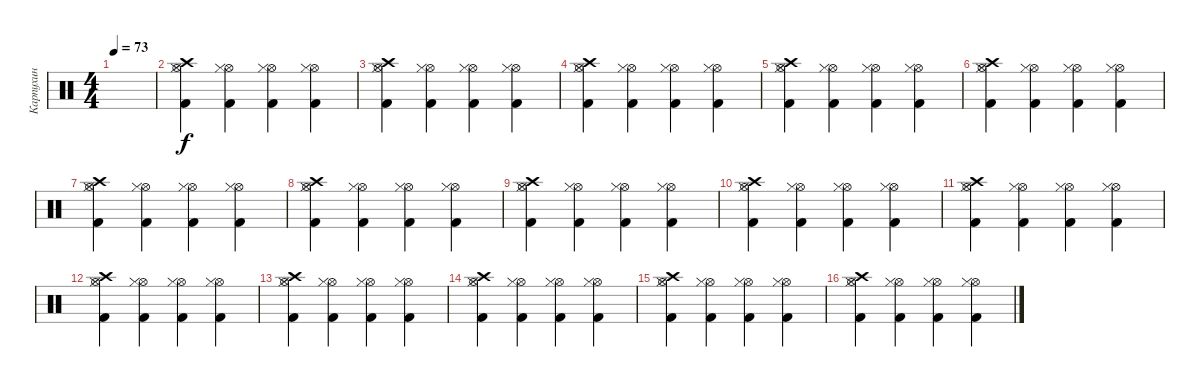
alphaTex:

\track ("Карпухин" "Карпухин") {instrument percussion}
\staff {score}
\articulation defaults
\ts (4 4)
\tempo 73
\clef neutral
\ks c
|
("Kick (hit) 2" "Hi-Hat (open)" "Hi-Hat (closed)" "Crash high (hit)").4 ("Kick (hit) 2" "Hi-Hat (open)" "Hi-Hat (closed)").4 ("Kick (hit) 2" "Hi-Hat (open)" "Hi-Hat (closed)").4 ("Kick (hit) 2" "Hi-Hat (open)" "Hi-Hat (closed)").4 |
("Kick (hit) 2" "Hi-Hat (open)" "Hi-Hat (closed)" "Crash high (hit)").4 ("Kick (hit) 2" "Hi-Hat (open)" "Hi-Hat (closed)").4 ("Kick (hit) 2" "Hi-Hat (open)" "Hi-Hat (closed)").4 ("Kick (hit) 2" "Hi-Hat (open)" "Hi-Hat (closed)").4 |
("Kick (hit) 2" "Hi-Hat (open)" "Hi-Hat (closed)" "Crash high (hit)").4 ("Kick (hit) 2" "Hi-Hat (open)" "Hi-Hat (closed)").4 ("Kick (hit) 2" "Hi-Hat (open)" "Hi-Hat (closed)").4 ("Kick (hit) 2" "Hi-Hat (open)" "Hi-Hat (closed)").4 |
("Kick (hit) 2" "Hi-Hat (open)" "Hi-Hat (closed)" "Crash high (hit)").4 ("Kick (hit) 2" "Hi-Hat (open)" "Hi-Hat (closed)").4 ("Kick (hit) 2" "Hi-Hat (open)" "Hi-Hat (closed)").4 ("Kick (hit) 2" "Hi-Hat (open)" "Hi-Hat (closed)").4 |
("Kick (hit) 2" "Hi-Hat (open)" "Hi-Hat (closed)" "Crash high (hit)").4 ("Kick (hit) 2" "Hi-Hat (open)" "Hi-Hat (closed)").4 ("Kick (hit) 2" "Hi-Hat (open)" "Hi-Hat (closed)").4 ("Kick (hit) 2" "Hi-Hat (open)" "Hi-Hat (closed)").4 |
("Kick (hit) 2" "Hi-Hat (open)" "Hi-Hat (closed)" "Crash high (hit)").4 ("Kick (hit) 2" "Hi-Hat (open)" "Hi-Hat (closed)").4 ("Kick (hit) 2" "Hi-Hat (open)" "Hi-Hat (closed)").4 ("Kick (hit) 2" "Hi-Hat (open)" "Hi-Hat (closed)").4 |
("Kick (hit) 2" "Hi-Hat (open)" "Hi-Hat (closed)" "Crash high (hit)").4 ("Kick (hit) 2" "Hi-Hat (open)" "Hi-Hat (closed)").4 ("Kick (hit) 2" "Hi-Hat (open)" "Hi-Hat (closed)").4 ("Kick (hit) 2" "Hi-Hat (open)" "Hi-Hat (closed)").4 |
("Kick (hit) 2" "Hi-Hat (open)" "Hi-Hat (closed)" "Crash high (hit)").4 ("Kick (hit) 2" "Hi-Hat (open)" "Hi-Hat (closed)").4 ("Kick (hit) 2" "Hi-Hat (open)" "Hi-Hat (closed)").4 ("Kick (hit) 2" "Hi-Hat (open)" "Hi-Hat (closed)").4 |
("Kick (hit) 2" "Hi-Hat (open)" "Hi-Hat (closed)" "Crash high (hit)").4 ("Kick (hit) 2" "Hi-Hat (open)" "Hi-Hat (closed)").4 ("Kick (hit) 2" "Hi-Hat (open)" "Hi-Hat (closed)").4 ("Kick (hit) 2" "Hi-Hat (open)" "Hi-Hat (closed)").4 |
("Kick (hit) 2" "Hi-Hat (open)" "Hi-Hat (closed)" "Crash high (hit)").4 ("Kick (hit) 2" "Hi-Hat (open)" "Hi-Hat (closed)").4 ("Kick (hit) 2" "Hi-Hat (open)" "Hi-Hat (closed)").4 ("Kick (hit) 2" "Hi-Hat (open)" "Hi-Hat (closed)").4 |
("Kick (hit) 2" "Hi-Hat (open)" "Hi-Hat (closed)" "Crash high (hit)").4 ("Kick (hit) 2" "Hi-Hat (open)" "Hi-Hat (closed)").4 ("Kick (hit) 2" "Hi-Hat (open)" "Hi-Hat (closed)").4 ("Kick (hit) 2" "Hi-Hat (open)" "Hi-Hat (closed)").4 |
("Kick (hit) 2" "Hi-Hat (open)" "Hi-Hat (closed)" "Crash high (hit)").4 ("Kick (hit) 2" "Hi-Hat (open)" "Hi-Hat (closed)").4 ("Kick (hit) 2" "Hi-Hat (open)" "Hi-Hat (closed)").4 ("Kick (hit) 2" "Hi-Hat (open)" "Hi-Hat (closed)").4 |
("Kick (hit) 2" "Hi-Hat (open)" "Hi-Hat (closed)" "Crash high (hit)").4 ("Kick (hit) 2" "Hi-Hat (open)" "Hi-Hat (closed)").4 ("Kick (hit) 2" "Hi-Hat (open)" "Hi-Hat (closed)").4 ("Kick (hit) 2" "Hi-Hat (open)" "Hi-Hat (closed)").4 |
("Kick (hit) 2" "Hi-Hat (open)" "Hi-Hat (closed)" "Crash high (hit)").4 ("Kick (hit) 2" "Hi-Hat (open)" "Hi-Hat (closed)").4 ("Kick (hit) 2" "Hi-Hat (open)" "Hi-Hat (closed)").4 ("Kick (hit) 2" "Hi-Hat (open)" "Hi-Hat (closed)").4 |
("Kick (hit) 2" "Hi-Hat (open)" "Hi-Hat (closed)" "Crash high (hit)").4 ("Kick (hit) 2" "Hi-Hat (open)" "Hi-Hat (closed)").4 ("Kick (hit) 2" "Hi-Hat (open)" "Hi-Hat (closed)").4 ("Kick (hit) 2" "Hi-Hat (open)" "Hi-Hat (closed)").4
